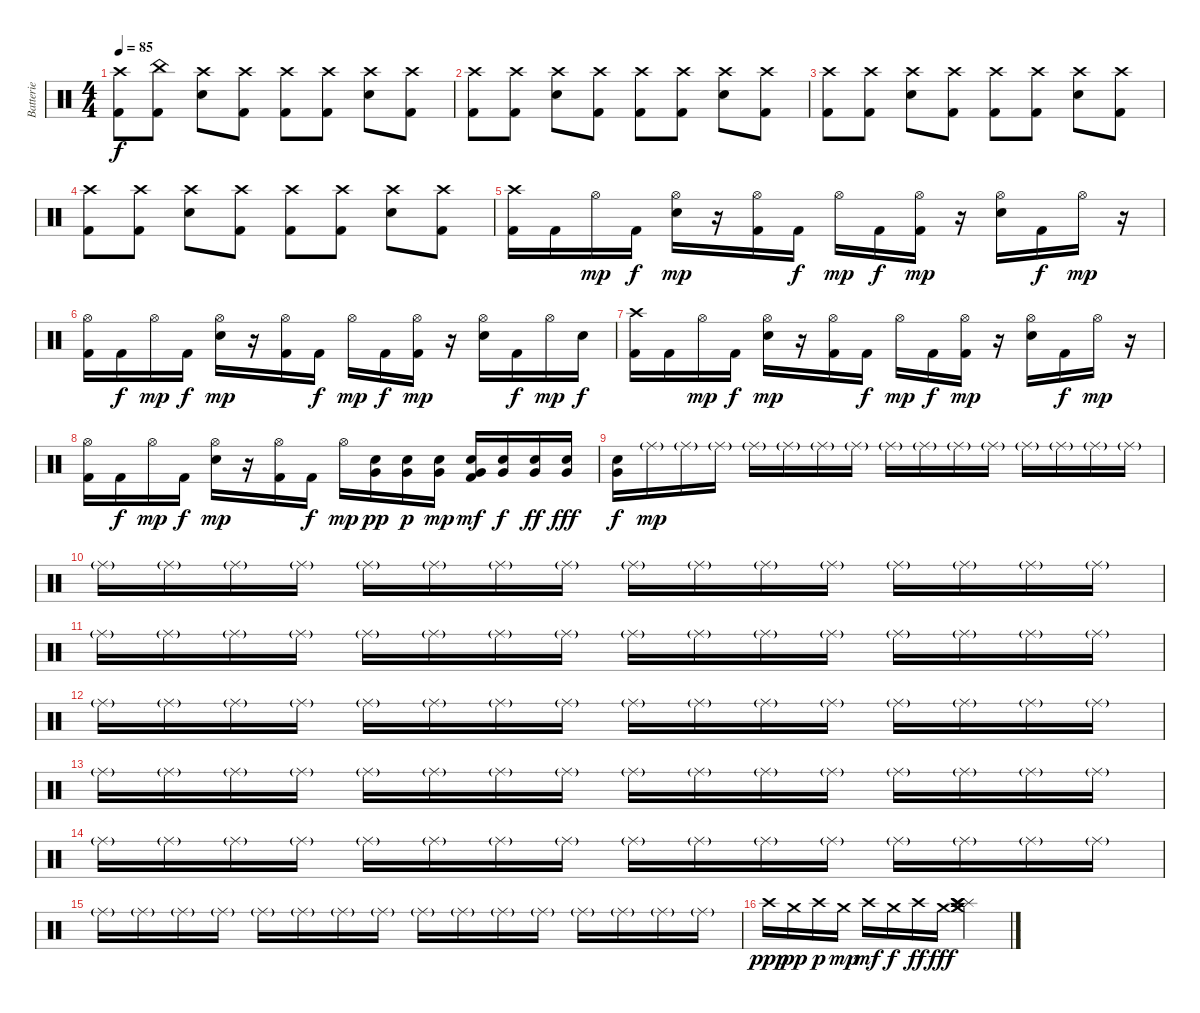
\track ("Batterie" "Batterie") {instrument percussion}
\staff {score}
\articulation defaults
\ts (4 4)
\tempo 85
\clef neutral
\ks c
("Crash high (hit)" "Kick (hit) 2").8{dy f} ("China (hit)" "Kick (hit) 2").8 ("Crash high (hit)" "Electric Snare (hit)").8 ("Crash high (hit)" "Kick (hit) 2").8 ("Crash high (hit)" "Kick (hit) 2").8 ("Crash high (hit)" "Kick (hit) 2").8 ("Crash high (hit)" "Electric Snare (hit)").8 ("Crash high (hit)" "Kick (hit) 2").8 |
("Crash high (hit)" "Kick (hit) 2").8 ("Crash high (hit)" "Kick (hit) 2").8 ("Crash high (hit)" "Electric Snare (hit)").8 ("Crash high (hit)" "Kick (hit) 2").8 ("Crash high (hit)" "Kick (hit) 2").8 ("Crash high (hit)" "Kick (hit) 2").8 ("Crash high (hit)" "Electric Snare (hit)").8 ("Crash high (hit)" "Kick (hit) 2").8 |
("Crash high (hit)" "Kick (hit) 2").8 ("Crash high (hit)" "Kick (hit) 2").8 ("Crash high (hit)" "Electric Snare (hit)").8 ("Crash high (hit)" "Kick (hit) 2").8 ("Crash high (hit)" "Kick (hit) 2").8 ("Crash high (hit)" "Kick (hit) 2").8 ("Crash high (hit)" "Electric Snare (hit)").8 ("Crash high (hit)" "Kick (hit) 2").8 |
("Crash high (hit)" "Kick (hit) 2").8 ("Crash high (hit)" "Kick (hit) 2").8 ("Crash high (hit)" "Electric Snare (hit)").8 ("Crash high (hit)" "Kick (hit) 2").8 ("Crash high (hit)" "Kick (hit) 2").8 ("Crash high (hit)" "Kick (hit) 2").8 ("Crash high (hit)" "Electric Snare (hit)").8 ("Crash high (hit)" "Kick (hit) 2").8 |
("Crash high (hit)" "Kick (hit) 2").16 "Kick (hit) 2".16 "Hi-Hat (open)".16{dy mp} "Kick (hit) 2".16{dy f} ("Hi-Hat (open)" "Electric Snare (hit)").16{dy mp} r.16 ("Hi-Hat (open)" "Kick (hit) 2").16 "Kick (hit) 2".16{dy f} "Hi-Hat (open)".16{dy mp} "Kick (hit) 2".16{dy f} ("Hi-Hat (open)" "Kick (hit) 2").16{dy mp} r.16 ("Hi-Hat (open)" "Electric Snare (hit)").16 "Kick (hit) 2".16{dy f} "Hi-Hat (open)".16{dy mp} r.16 |
("Hi-Hat (open)" "Kick (hit) 2").16 "Kick (hit) 2".16{dy f} "Hi-Hat (open)".16{dy mp} "Kick (hit) 2".16{dy f} ("Hi-Hat (open)" "Electric Snare (hit)").16{dy mp} r.16 ("Hi-Hat (open)" "Kick (hit) 2").16 "Kick (hit) 2".16{dy f} "Hi-Hat (open)".16{dy mp} "Kick (hit) 2".16{dy f} ("Hi-Hat (open)" "Kick (hit) 2").16{dy mp} r.16 ("Hi-Hat (open)" "Electric Snare (hit)").16 "Kick (hit) 2".16{dy f} "Hi-Hat (open)".16{dy mp} "Electric Snare (hit)".16{dy f} |
("Crash high (hit)" "Kick (hit) 2").16 "Kick (hit) 2".16 "Hi-Hat (open)".16{dy mp} "Kick (hit) 2".16{dy f} ("Hi-Hat (open)" "Electric Snare (hit)").16{dy mp} r.16 ("Hi-Hat (open)" "Kick (hit) 2").16 "Kick (hit) 2".16{dy f} "Hi-Hat (open)".16{dy mp} "Kick (hit) 2".16{dy f} ("Hi-Hat (open)" "Kick (hit) 2").16{dy mp} r.16 ("Hi-Hat (open)" "Electric Snare (hit)").16 "Kick (hit) 2".16{dy f} "Hi-Hat (open)".16{dy mp} r.16 |
("Hi-Hat (open)" "Kick (hit) 2").16 "Kick (hit) 2".16{dy f} "Hi-Hat (open)".16{dy mp} "Kick (hit) 2".16{dy f} ("Hi-Hat (open)" "Electric Snare (hit)").16{dy mp} r.16 ("Hi-Hat (open)" "Kick (hit) 2").16 "Kick (hit) 2".16{dy f} "Hi-Hat (open)".16{dy mp} ("Electric Snare (hit)" "Very Low Tom (hit)").16{dy pp} ("Electric Snare (hit)" "Very Low Tom (hit)").16{dy p} ("Electric Snare (hit)" "Very Low Tom (hit)").16{dy mp} ("Electric Snare (hit)" "Very Low Tom (hit)" "Kick (hit) 2").16{dy mf} ("Electric Snare (hit)" "Very Low Tom (hit)").16{dy f} ("Electric Snare (hit)" "Very Low Tom (hit)").16{dy ff} ("Electric Snare (hit)" "Very Low Tom (hit)").16{dy fff} |
("Electric Snare (hit)" "Very Low Tom (hit)").16{dy f} "Ride (middle)"{g}.16{dy mp} "Ride (middle)"{g}.16 "Ride (middle)"{g}.16 "Ride (middle)"{g}.16 "Ride (middle)"{g}.16 "Ride (middle)"{g}.16 "Ride (middle)"{g}.16 "Ride (middle)"{g}.16 "Ride (middle)"{g}.16 "Ride (middle)"{g}.16 "Ride (middle)"{g}.16 "Ride (middle)"{g}.16 "Ride (middle)"{g}.16 "Ride (middle)"{g}.16 "Ride (middle)"{g}.16 |
"Ride (middle)"{g}.16 "Ride (middle)"{g}.16 "Ride (middle)"{g}.16 "Ride (middle)"{g}.16 "Ride (middle)"{g}.16 "Ride (middle)"{g}.16 "Ride (middle)"{g}.16 "Ride (middle)"{g}.16 "Ride (middle)"{g}.16 "Ride (middle)"{g}.16 "Ride (middle)"{g}.16 "Ride (middle)"{g}.16 "Ride (middle)"{g}.16 "Ride (middle)"{g}.16 "Ride (middle)"{g}.16 "Ride (middle)"{g}.16 |
"Ride (middle)"{g}.16 "Ride (middle)"{g}.16 "Ride (middle)"{g}.16 "Ride (middle)"{g}.16 "Ride (middle)"{g}.16 "Ride (middle)"{g}.16 "Ride (middle)"{g}.16 "Ride (middle)"{g}.16 "Ride (middle)"{g}.16 "Ride (middle)"{g}.16 "Ride (middle)"{g}.16 "Ride (middle)"{g}.16 "Ride (middle)"{g}.16 "Ride (middle)"{g}.16 "Ride (middle)"{g}.16 "Ride (middle)"{g}.16 |
"Ride (middle)"{g}.16 "Ride (middle)"{g}.16 "Ride (middle)"{g}.16 "Ride (middle)"{g}.16 "Ride (middle)"{g}.16 "Ride (middle)"{g}.16 "Ride (middle)"{g}.16 "Ride (middle)"{g}.16 "Ride (middle)"{g}.16 "Ride (middle)"{g}.16 "Ride (middle)"{g}.16 "Ride (middle)"{g}.16 "Ride (middle)"{g}.16 "Ride (middle)"{g}.16 "Ride (middle)"{g}.16 "Ride (middle)"{g}.16 |
"Ride (middle)"{g}.16 "Ride (middle)"{g}.16 "Ride (middle)"{g}.16 "Ride (middle)"{g}.16 "Ride (middle)"{g}.16 "Ride (middle)"{g}.16 "Ride (middle)"{g}.16 "Ride (middle)"{g}.16 "Ride (middle)"{g}.16 "Ride (middle)"{g}.16 "Ride (middle)"{g}.16 "Ride (middle)"{g}.16 "Ride (middle)"{g}.16 "Ride (middle)"{g}.16 "Ride (middle)"{g}.16 "Ride (middle)"{g}.16 |
"Ride (middle)"{g}.16 "Ride (middle)"{g}.16 "Ride (middle)"{g}.16 "Ride (middle)"{g}.16 "Ride (middle)"{g}.16 "Ride (middle)"{g}.16 "Ride (middle)"{g}.16 "Ride (middle)"{g}.16 "Ride (middle)"{g}.16 "Ride (middle)"{g}.16 "Ride (middle)"{g}.16 "Ride (middle)"{g}.16 "Ride (middle)"{g}.16 "Ride (middle)"{g}.16 "Ride (middle)"{g}.16 "Ride (middle)"{g}.16 |
"Ride (middle)"{g}.16 "Ride (middle)"{g}.16 "Ride (middle)"{g}.16 "Ride (middle)"{g}.16 "Ride (middle)"{g}.16 "Ride (middle)"{g}.16 "Ride (middle)"{g}.16 "Ride (middle)"{g}.16 "Ride (middle)"{g}.16 "Ride (middle)"{g}.16 "Ride (middle)"{g}.16 "Ride (middle)"{g}.16 "Ride (middle)"{g}.16 "Ride (middle)"{g}.16 "Ride (middle)"{g}.16 "Ride (middle)"{g}.16 |
"Crash high (hit)".16{dy ppp} "Crash medium (hit)".16{dy pp} "Crash high (hit)".16{dy p} "Crash medium (hit)".16{dy mp} "Crash high (hit)".16{dy mf} "Crash medium (hit)".16{dy f} "Crash high (hit)".16{dy ff} "Crash medium (hit)".16{dy fff} ("Crash medium (hit)" "Splash (hit)" "Crash high (hit)" "Crash medium (hit)" "Splash (hit)" "Crash high (hit)").2
